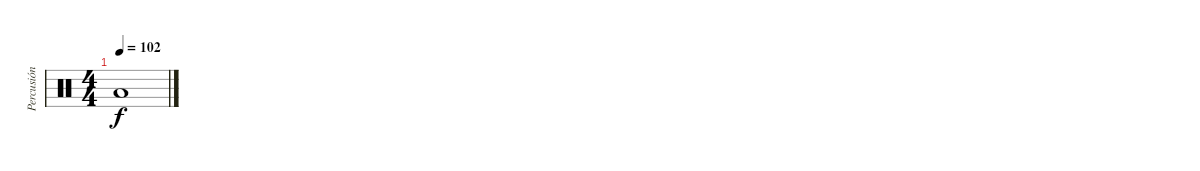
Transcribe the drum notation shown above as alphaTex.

\track ("Percusión" "Percusión") {instrument percussion}
\staff {score}
\articulation defaults
\ts (4 4)
\tempo 102
\clef neutral
\ks c "Low Tom (hit)".1{dy f}
